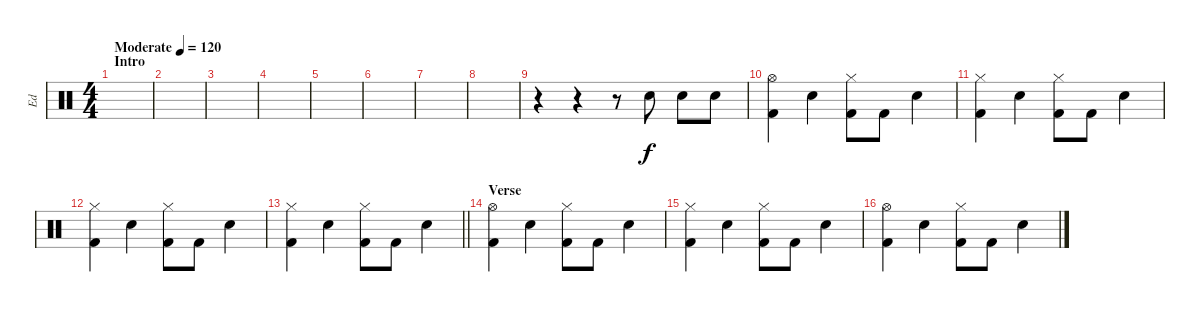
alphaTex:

\track ("Ed" "Ed") {instrument percussion}
\staff {score}
\articulation defaults
\ts (4 4)
\section ("" "Intro")
\tempo (120 "Moderate")
\tempo 205
\tempo (120 "Moderate")
\clef neutral
\ks c
|
|
|
|
|
|
|
|
r.4 r.4 r.8 "Snare (hit) 2".8 "Snare (hit) 2".8 "Snare (hit) 2".8 |
("Hi-Hat (open)" "Kick (hit) 2").4{dy f} "Snare (hit) 2".4 ("Hi-Hat (closed)" "Kick (hit) 2").8 "Kick (hit) 2".8 "Snare (hit) 2".4 |
("Hi-Hat (closed)" "Kick (hit) 2").4 "Snare (hit) 2".4 ("Hi-Hat (closed)" "Kick (hit) 2").8 "Kick (hit) 2".8 "Snare (hit) 2".4 |
("Hi-Hat (closed)" "Kick (hit) 2").4 "Snare (hit) 2".4 ("Hi-Hat (closed)" "Kick (hit) 2").8 "Kick (hit) 2".8 "Snare (hit) 2".4 |
\barLineRight lightlight
("Hi-Hat (closed)" "Kick (hit) 2").4 "Snare (hit) 2".4 ("Hi-Hat (closed)" "Kick (hit) 2").8 "Kick (hit) 2".8 "Snare (hit) 2".4 |
\section ("" "Verse")
("Hi-Hat (open)" "Kick (hit) 2").4 "Snare (hit) 2".4 ("Hi-Hat (closed)" "Kick (hit) 2").8 "Kick (hit) 2".8 "Snare (hit) 2".4 |
("Hi-Hat (closed)" "Kick (hit) 2").4 "Snare (hit) 2".4 ("Hi-Hat (closed)" "Kick (hit) 2").8 "Kick (hit) 2".8 "Snare (hit) 2".4 |
("Hi-Hat (open)" "Kick (hit) 2").4 "Snare (hit) 2".4 ("Hi-Hat (closed)" "Kick (hit) 2").8 "Kick (hit) 2".8 "Snare (hit) 2".4
